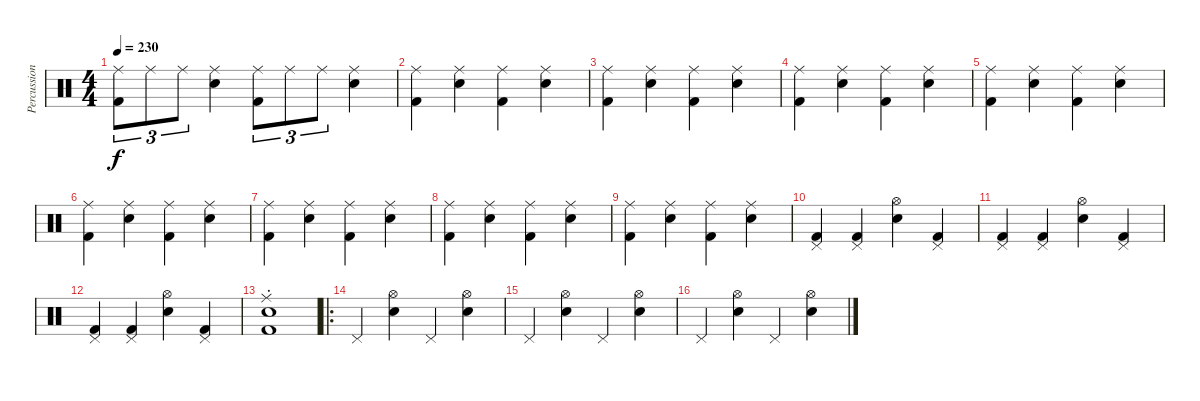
\track ("Percussion" "Percussion") {instrument percussion}
\staff {score}
\articulation defaults
\ts (4 4)
\tempo 230
\clef neutral
\ks c
("Ride (middle)" "Kick (hit) 2").8{tu (3 2) dy f} "Ride (middle)".8{tu (3 2)} "Ride (middle)".8{tu (3 2)} ("Ride (middle)" "Electric Snare (hit)").4 ("Ride (middle)" "Kick (hit) 2").8{tu (3 2)} "Ride (middle)".8{tu (3 2)} "Ride (middle)".8{tu (3 2)} ("Ride (middle)" "Electric Snare (hit)").4 |
("Ride (middle)" "Kick (hit) 2").4 ("Ride (middle)" "Electric Snare (hit)").4 ("Ride (middle)" "Kick (hit) 2").4 ("Ride (middle)" "Electric Snare (hit)").4 |
("Ride (middle)" "Kick (hit) 2").4 ("Ride (middle)" "Electric Snare (hit)").4 ("Ride (middle)" "Kick (hit) 2").4 ("Ride (middle)" "Electric Snare (hit)").4 |
("Ride (middle)" "Kick (hit) 2").4 ("Ride (middle)" "Electric Snare (hit)").4 ("Ride (middle)" "Kick (hit) 2").4 ("Ride (middle)" "Electric Snare (hit)").4 |
("Ride (middle)" "Kick (hit) 2").4 ("Ride (middle)" "Electric Snare (hit)").4 ("Ride (middle)" "Kick (hit) 2").4 ("Ride (middle)" "Electric Snare (hit)").4 |
("Ride (middle)" "Kick (hit) 2").4 ("Ride (middle)" "Electric Snare (hit)").4 ("Ride (middle)" "Kick (hit) 2").4 ("Ride (middle)" "Electric Snare (hit)").4 |
("Ride (middle)" "Kick (hit) 2").4 ("Ride (middle)" "Electric Snare (hit)").4 ("Ride (middle)" "Kick (hit) 2").4 ("Ride (middle)" "Electric Snare (hit)").4 |
("Ride (middle)" "Kick (hit) 2").4 ("Ride (middle)" "Electric Snare (hit)").4 ("Ride (middle)" "Kick (hit) 2").4 ("Ride (middle)" "Electric Snare (hit)").4 |
("Ride (middle)" "Kick (hit) 2").4 ("Ride (middle)" "Electric Snare (hit)").4 ("Ride (middle)" "Kick (hit) 2").4 ("Ride (middle)" "Electric Snare (hit)").4 |
("Pedal Hi-Hat (hit)" "Kick (hit) 2").4 ("Pedal Hi-Hat (hit)" "Kick (hit) 2").4 ("Hi-Hat (open)" "Electric Snare (hit)").4 ("Pedal Hi-Hat (hit)" "Kick (hit) 2").4 |
("Pedal Hi-Hat (hit)" "Kick (hit) 2").4 ("Pedal Hi-Hat (hit)" "Kick (hit) 2").4 ("Hi-Hat (open)" "Electric Snare (hit)").4 ("Pedal Hi-Hat (hit)" "Kick (hit) 2").4 |
("Pedal Hi-Hat (hit)" "Kick (hit) 2").4 ("Pedal Hi-Hat (hit)" "Kick (hit) 2").4 ("Hi-Hat (open)" "Electric Snare (hit)").4 ("Pedal Hi-Hat (hit)" "Kick (hit) 2").4 |
("Ride (middle)"{st} "Electric Snare (hit)"{st} "Kick (hit) 2"{st}).1 |
\ro "Pedal Hi-Hat (hit)".4
("Hi-Hat (open)" "Electric Snare (hit)").4 "Pedal Hi-Hat (hit)".4 ("Hi-Hat (open)" "Electric Snare (hit)").4 |
"Pedal Hi-Hat (hit)".4 ("Hi-Hat (open)" "Electric Snare (hit)").4 "Pedal Hi-Hat (hit)".4 ("Hi-Hat (open)" "Electric Snare (hit)").4 |
"Pedal Hi-Hat (hit)".4 ("Hi-Hat (open)" "Electric Snare (hit)").4 "Pedal Hi-Hat (hit)".4 ("Hi-Hat (open)" "Electric Snare (hit)").4
